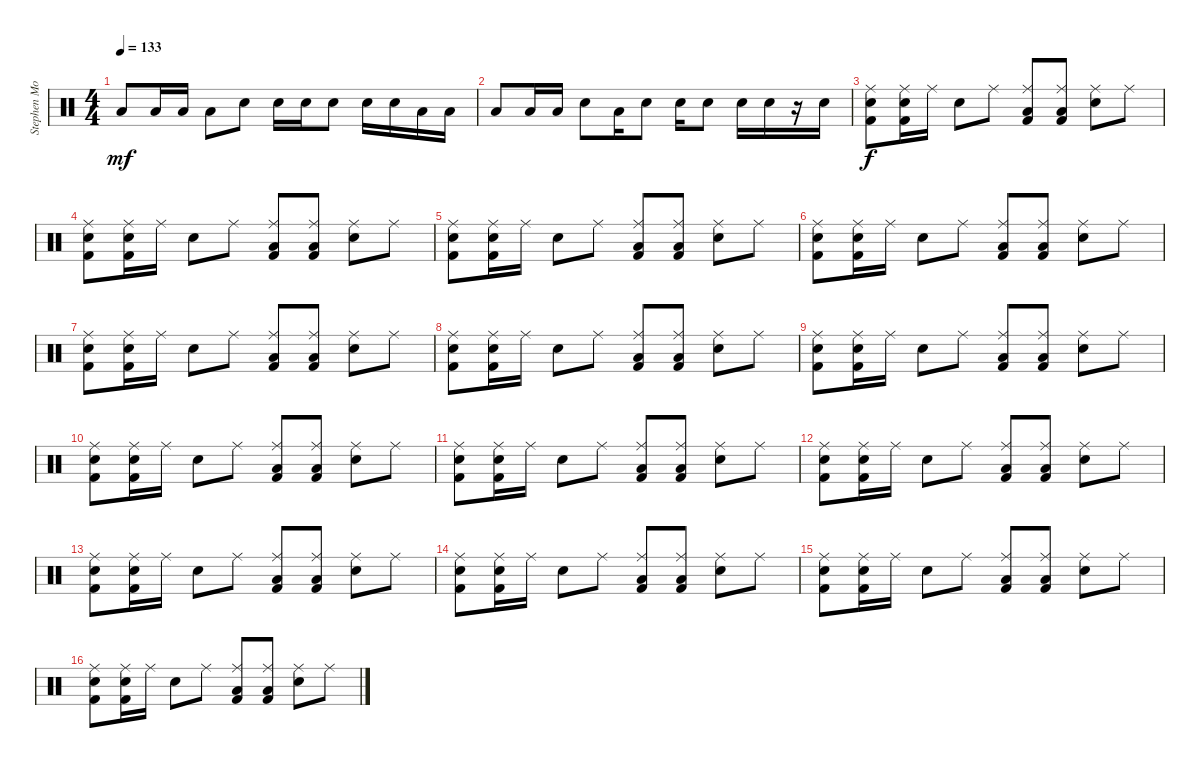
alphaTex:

\track ("Stephen Morris - Drums" "Stephen Mo") {instrument percussion}
\staff {score}
\articulation defaults
\ts (4 4)
\tempo 133
\clef neutral
\ks c "Low Tom (hit)".8{dy mf} "Low Tom (hit)".16 "Low Tom (hit)".16 "Low Tom (hit)".8 "Electric Snare (hit)".8 "Electric Snare (hit)".16 "Electric Snare (hit)".16 "Electric Snare (hit)".8 "Electric Snare (hit)".16 "Electric Snare (hit)".16 "Low Tom (hit)".16 "Low Tom (hit)".16
|
"Low Tom (hit)".8 "Low Tom (hit)".16 "Low Tom (hit)".16 "Electric Snare (hit)".8 "Low Tom (hit)".16 "Electric Snare (hit)".8 "Electric Snare (hit)".16 "Electric Snare (hit)".8 "Electric Snare (hit)".16 "Electric Snare (hit)".16 r.16 "Electric Snare (hit)".16 |
("Ride (middle)" "Electric Snare (hit)" "Kick (hit) 2").8{dy f} ("Ride (middle)" "Electric Snare (hit)" "Kick (hit) 2").16 "Ride (middle)".16 "Electric Snare (hit)".8 "Ride (middle)".8 ("Ride (middle)" "Low Tom (hit)" "Kick (hit) 2").8 ("Ride (middle)" "Low Tom (hit)" "Kick (hit) 2").8 ("Ride (middle)" "Electric Snare (hit)").8 "Ride (middle)".8 |
("Ride (middle)" "Electric Snare (hit)" "Kick (hit) 2").8 ("Ride (middle)" "Electric Snare (hit)" "Kick (hit) 2").16 "Ride (middle)".16 "Electric Snare (hit)".8 "Ride (middle)".8 ("Ride (middle)" "Low Tom (hit)" "Kick (hit) 2").8 ("Ride (middle)" "Low Tom (hit)" "Kick (hit) 2").8 ("Ride (middle)" "Electric Snare (hit)").8 "Ride (middle)".8 |
("Ride (middle)" "Electric Snare (hit)" "Kick (hit) 2").8 ("Ride (middle)" "Electric Snare (hit)" "Kick (hit) 2").16 "Ride (middle)".16 "Electric Snare (hit)".8 "Ride (middle)".8 ("Ride (middle)" "Low Tom (hit)" "Kick (hit) 2").8 ("Ride (middle)" "Low Tom (hit)" "Kick (hit) 2").8 ("Ride (middle)" "Electric Snare (hit)").8 "Ride (middle)".8 |
("Ride (middle)" "Electric Snare (hit)" "Kick (hit) 2").8 ("Ride (middle)" "Electric Snare (hit)" "Kick (hit) 2").16 "Ride (middle)".16 "Electric Snare (hit)".8 "Ride (middle)".8 ("Ride (middle)" "Low Tom (hit)" "Kick (hit) 2").8 ("Ride (middle)" "Low Tom (hit)" "Kick (hit) 2").8 ("Ride (middle)" "Electric Snare (hit)").8 "Ride (middle)".8 |
("Ride (middle)" "Electric Snare (hit)" "Kick (hit) 2").8 ("Ride (middle)" "Electric Snare (hit)" "Kick (hit) 2").16 "Ride (middle)".16 "Electric Snare (hit)".8 "Ride (middle)".8 ("Ride (middle)" "Low Tom (hit)" "Kick (hit) 2").8 ("Ride (middle)" "Low Tom (hit)" "Kick (hit) 2").8 ("Ride (middle)" "Electric Snare (hit)").8 "Ride (middle)".8 |
("Ride (middle)" "Electric Snare (hit)" "Kick (hit) 2").8 ("Ride (middle)" "Electric Snare (hit)" "Kick (hit) 2").16 "Ride (middle)".16 "Electric Snare (hit)".8 "Ride (middle)".8 ("Ride (middle)" "Low Tom (hit)" "Kick (hit) 2").8 ("Ride (middle)" "Low Tom (hit)" "Kick (hit) 2").8 ("Ride (middle)" "Electric Snare (hit)").8 "Ride (middle)".8 |
("Ride (middle)" "Electric Snare (hit)" "Kick (hit) 2").8 ("Ride (middle)" "Electric Snare (hit)" "Kick (hit) 2").16 "Ride (middle)".16 "Electric Snare (hit)".8 "Ride (middle)".8 ("Ride (middle)" "Low Tom (hit)" "Kick (hit) 2").8 ("Ride (middle)" "Low Tom (hit)" "Kick (hit) 2").8 ("Ride (middle)" "Electric Snare (hit)").8 "Ride (middle)".8 |
("Ride (middle)" "Electric Snare (hit)" "Kick (hit) 2").8 ("Ride (middle)" "Electric Snare (hit)" "Kick (hit) 2").16 "Ride (middle)".16 "Electric Snare (hit)".8 "Ride (middle)".8 ("Ride (middle)" "Low Tom (hit)" "Kick (hit) 2").8 ("Ride (middle)" "Low Tom (hit)" "Kick (hit) 2").8 ("Ride (middle)" "Electric Snare (hit)").8 "Ride (middle)".8 |
("Ride (middle)" "Electric Snare (hit)" "Kick (hit) 2").8 ("Ride (middle)" "Electric Snare (hit)" "Kick (hit) 2").16 "Ride (middle)".16 "Electric Snare (hit)".8 "Ride (middle)".8 ("Ride (middle)" "Low Tom (hit)" "Kick (hit) 2").8 ("Ride (middle)" "Low Tom (hit)" "Kick (hit) 2").8 ("Ride (middle)" "Electric Snare (hit)").8 "Ride (middle)".8 |
("Ride (middle)" "Electric Snare (hit)" "Kick (hit) 2").8 ("Ride (middle)" "Electric Snare (hit)" "Kick (hit) 2").16 "Ride (middle)".16 "Electric Snare (hit)".8 "Ride (middle)".8 ("Ride (middle)" "Low Tom (hit)" "Kick (hit) 2").8 ("Ride (middle)" "Low Tom (hit)" "Kick (hit) 2").8 ("Ride (middle)" "Electric Snare (hit)").8 "Ride (middle)".8 |
("Ride (middle)" "Electric Snare (hit)" "Kick (hit) 2").8 ("Ride (middle)" "Electric Snare (hit)" "Kick (hit) 2").16 "Ride (middle)".16 "Electric Snare (hit)".8 "Ride (middle)".8 ("Ride (middle)" "Low Tom (hit)" "Kick (hit) 2").8 ("Ride (middle)" "Low Tom (hit)" "Kick (hit) 2").8 ("Ride (middle)" "Electric Snare (hit)").8 "Ride (middle)".8 |
("Ride (middle)" "Electric Snare (hit)" "Kick (hit) 2").8 ("Ride (middle)" "Electric Snare (hit)" "Kick (hit) 2").16 "Ride (middle)".16 "Electric Snare (hit)".8 "Ride (middle)".8 ("Ride (middle)" "Low Tom (hit)" "Kick (hit) 2").8 ("Ride (middle)" "Low Tom (hit)" "Kick (hit) 2").8 ("Ride (middle)" "Electric Snare (hit)").8 "Ride (middle)".8 |
("Ride (middle)" "Electric Snare (hit)" "Kick (hit) 2").8 ("Ride (middle)" "Electric Snare (hit)" "Kick (hit) 2").16 "Ride (middle)".16 "Electric Snare (hit)".8 "Ride (middle)".8 ("Ride (middle)" "Low Tom (hit)" "Kick (hit) 2").8 ("Ride (middle)" "Low Tom (hit)" "Kick (hit) 2").8 ("Ride (middle)" "Electric Snare (hit)").8 "Ride (middle)".8 |
("Ride (middle)" "Electric Snare (hit)" "Kick (hit) 2").8 ("Ride (middle)" "Electric Snare (hit)" "Kick (hit) 2").16 "Ride (middle)".16 "Electric Snare (hit)".8 "Ride (middle)".8 ("Ride (middle)" "Low Tom (hit)" "Kick (hit) 2").8 ("Ride (middle)" "Low Tom (hit)" "Kick (hit) 2").8 ("Ride (middle)" "Electric Snare (hit)").8 "Ride (middle)".8
